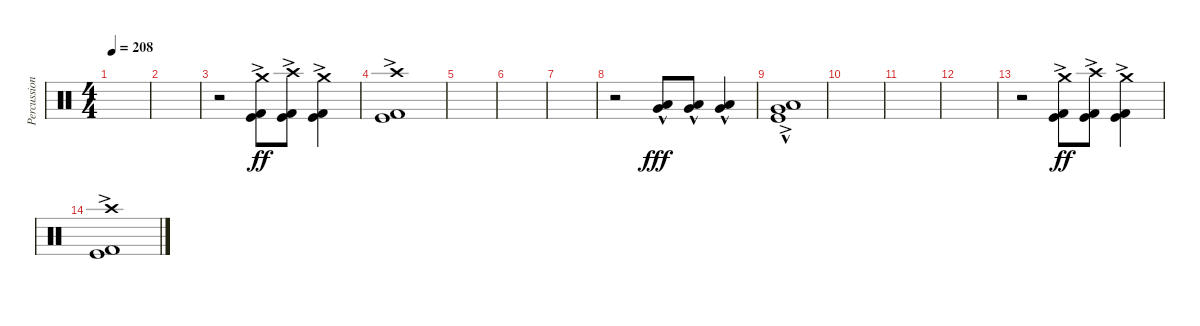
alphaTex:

\track ("Percussion" "Percussion") {instrument percussion}
\staff {score}
\articulation defaults
\ts (4 4)
\tempo 208
\clef neutral
\ks c
|
|
r.2 ("Kick (hit)"{ac} "Kick (hit) 2"{ac} "Crash medium (hit)").8{dy ff} ("Kick (hit)"{ac} "Kick (hit) 2"{ac} "Crash high (hit)").8 ("Kick (hit)"{ac} "Kick (hit) 2"{ac} "Crash medium (hit)").4 |
("Kick (hit) 2"{ac} "Kick (hit)"{ac} "Crash high (hit)").1 |
|
|
|
r.2 ("Very Low Tom (hit)"{hac} "Low Floor Tom (hit)"{hac}).8{dy fff} ("Low Floor Tom (hit)"{hac} "Very Low Tom (hit)"{hac}).8 ("Low Floor Tom (hit)"{hac} "Very Low Tom (hit)"{hac}).4 |
("Kick (hit)"{ac} "Low Floor Tom (hit)"{hac} "Very Low Tom (hit)"{hac}).1 |
|
|
|
r.2 ("Kick (hit)"{ac} "Kick (hit) 2"{ac} "Crash medium (hit)").8{dy ff} ("Kick (hit)"{ac} "Kick (hit) 2"{ac} "Crash high (hit)").8 ("Kick (hit)"{ac} "Kick (hit) 2"{ac} "Crash medium (hit)").4 |
("Kick (hit) 2"{ac} "Kick (hit)"{ac} "Crash high (hit)").1
